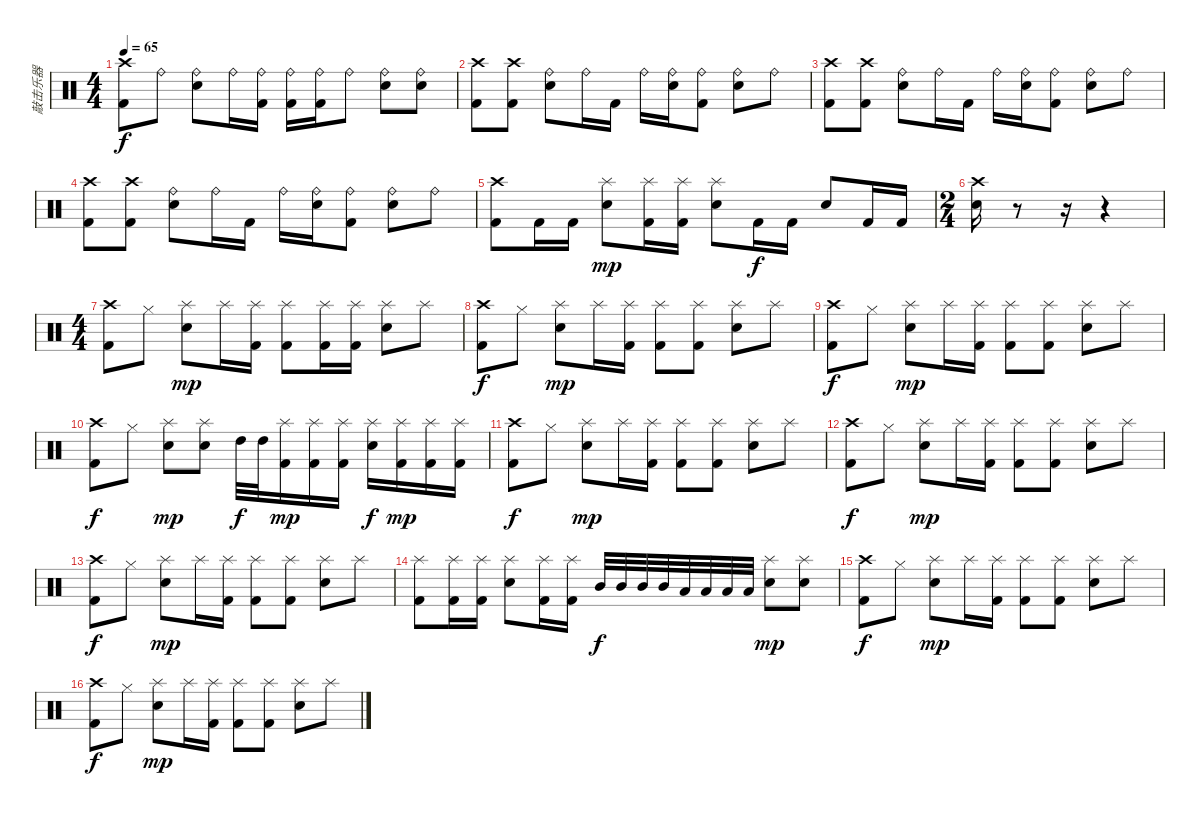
\track ("敲击乐器" "敲击乐器") {instrument percussion}
\staff {score}
\articulation defaults
\ts (4 4)
\tempo 65
\clef neutral
\ks c
("Crash high (hit)" "Kick (hit) 2").8{dy f} "Ride (bell)".8 ("Ride (bell)" "Snare (hit) 2").8 "Ride (bell)".16 ("Ride (bell)" "Kick (hit) 2").16 ("Ride (bell)" "Kick (hit) 2").16 ("Ride (bell)" "Kick (hit) 2").16 "Ride (bell)".8 ("Ride (bell)" "Snare (hit) 2").8 ("Ride (bell)" "Snare (hit) 2").8 |
("Crash high (hit)" "Kick (hit) 2").8 ("Crash high (hit)" "Kick (hit) 2").8 ("Ride (bell)" "Snare (hit) 2").8 "Ride (bell)".16 "Kick (hit) 2".16 "Ride (bell)".16 ("Ride (bell)" "Snare (hit) 2").16 ("Ride (bell)" "Kick (hit) 2").8 ("Ride (bell)" "Snare (hit) 2").8 "Ride (bell)".8 |
("Crash high (hit)" "Kick (hit) 2").8 ("Crash high (hit)" "Kick (hit) 2").8 ("Ride (bell)" "Snare (hit) 2").8 "Ride (bell)".16 "Kick (hit) 2".16 "Ride (bell)".16 ("Ride (bell)" "Snare (hit) 2").16 ("Ride (bell)" "Kick (hit) 2").8 ("Ride (bell)" "Snare (hit) 2").8 "Ride (bell)".8 |
("Crash high (hit)" "Kick (hit) 2").8 ("Crash high (hit)" "Kick (hit) 2").8 ("Ride (bell)" "Snare (hit) 2").8 "Ride (bell)".16 "Kick (hit) 2".16 "Ride (bell)".16 ("Ride (bell)" "Snare (hit) 2").16 ("Ride (bell)" "Kick (hit) 2").8 ("Ride (bell)" "Snare (hit) 2").8 "Ride (bell)".8 |
("Crash high (hit)" "Kick (hit) 2").8 "Kick (hit) 2".16 "Kick (hit) 2".16 ("Splash (hit)" "Snare (hit) 2").8{dy mp} ("Splash (hit)" "Kick (hit) 2").16 ("Splash (hit)" "Kick (hit) 2").16 ("Splash (hit)" "Snare (hit) 2").8 "Kick (hit) 2".16{dy f} "Kick (hit) 2".16 "Snare (hit) 2".8 "Kick (hit) 2".16 "Kick (hit) 2".16 |
\ts (2 4)
("Crash high (hit)" "Snare (hit) 2").16 r.8 r.16 r.4 |
\ts (4 4)
("Crash high (hit)" "Kick (hit) 2").8 "Hi-Hat (closed)".8 ("Splash (hit)" "Snare (hit) 2").8{dy mp} "Splash (hit)".16 ("Splash (hit)" "Kick (hit) 2").16 ("Splash (hit)" "Kick (hit) 2").8 ("Splash (hit)" "Kick (hit) 2").16 ("Splash (hit)" "Kick (hit) 2").16 ("Splash (hit)" "Snare (hit) 2").8 "Splash (hit)".8 |
("Crash high (hit)" "Kick (hit) 2").8{dy f} "Hi-Hat (closed)".8 ("Splash (hit)" "Snare (hit) 2").8{dy mp} "Splash (hit)".16 ("Splash (hit)" "Kick (hit) 2").16 ("Splash (hit)" "Kick (hit) 2").8 ("Splash (hit)" "Kick (hit) 2").8 ("Splash (hit)" "Snare (hit) 2").8 "Splash (hit)".8 |
("Crash high (hit)" "Kick (hit) 2").8{dy f} "Hi-Hat (closed)".8 ("Splash (hit)" "Snare (hit) 2").8{dy mp} "Splash (hit)".16 ("Splash (hit)" "Kick (hit) 2").16 ("Splash (hit)" "Kick (hit) 2").8 ("Splash (hit)" "Kick (hit) 2").8 ("Splash (hit)" "Snare (hit) 2").8 "Splash (hit)".8 |
("Crash high (hit)" "Kick (hit) 2").8{dy f} "Hi-Hat (closed)".8 ("Splash (hit)" "Snare (hit) 2").8{dy mp} ("Splash (hit)" "Snare (hit) 2").8 "High Tom (hit)".32{dy f} "High Tom (hit)".32 ("Splash (hit)" "Kick (hit) 2").16{dy mp} ("Splash (hit)" "Kick (hit) 2").16 ("Splash (hit)" "Kick (hit) 2").16 ("Splash (hit)" "Snare (hit) 2").16{dy f} ("Splash (hit)" "Kick (hit) 2").16{dy mp} ("Splash (hit)" "Kick (hit) 2").16 ("Splash (hit)" "Kick (hit) 2").16 |
("Crash high (hit)" "Kick (hit) 2").8{dy f} "Hi-Hat (closed)".8 ("Splash (hit)" "Snare (hit) 2").8{dy mp} "Splash (hit)".16 ("Splash (hit)" "Kick (hit) 2").16 ("Splash (hit)" "Kick (hit) 2").8 ("Splash (hit)" "Kick (hit) 2").8 ("Splash (hit)" "Snare (hit) 2").8 "Splash (hit)".8 |
("Crash high (hit)" "Kick (hit) 2").8{dy f} "Hi-Hat (closed)".8 ("Splash (hit)" "Snare (hit) 2").8{dy mp} "Splash (hit)".16 ("Splash (hit)" "Kick (hit) 2").16 ("Splash (hit)" "Kick (hit) 2").8 ("Splash (hit)" "Kick (hit) 2").8 ("Splash (hit)" "Snare (hit) 2").8 "Splash (hit)".8 |
("Crash high (hit)" "Kick (hit) 2").8{dy f} "Hi-Hat (closed)".8 ("Splash (hit)" "Snare (hit) 2").8{dy mp} "Splash (hit)".16 ("Splash (hit)" "Kick (hit) 2").16 ("Splash (hit)" "Kick (hit) 2").8 ("Splash (hit)" "Kick (hit) 2").8 ("Splash (hit)" "Snare (hit) 2").8 "Splash (hit)".8 |
("Splash (hit)" "Kick (hit) 2").8 ("Splash (hit)" "Kick (hit) 2").16 ("Splash (hit)" "Kick (hit) 2").16 ("Splash (hit)" "Snare (hit) 2").8 ("Splash (hit)" "Kick (hit) 2").16 ("Splash (hit)" "Kick (hit) 2").16 "Mid Tom (hit)".32{dy f} "Mid Tom (hit)".32 "Mid Tom (hit)".32 "Mid Tom (hit)".32 "Low Tom (hit)".32 "Low Tom (hit)".32 "Low Tom (hit)".32 "Low Tom (hit)".32 ("Splash (hit)" "Snare (hit) 2").8{dy mp} ("Splash (hit)" "Snare (hit) 2").8 |
("Crash high (hit)" "Kick (hit) 2").8{dy f} "Hi-Hat (closed)".8 ("Splash (hit)" "Snare (hit) 2").8{dy mp} "Splash (hit)".16 ("Splash (hit)" "Kick (hit) 2").16 ("Splash (hit)" "Kick (hit) 2").8 ("Splash (hit)" "Kick (hit) 2").8 ("Splash (hit)" "Snare (hit) 2").8 "Splash (hit)".8 |
("Crash high (hit)" "Kick (hit) 2").8{dy f} "Hi-Hat (closed)".8 ("Splash (hit)" "Snare (hit) 2").8{dy mp} "Splash (hit)".16 ("Splash (hit)" "Kick (hit) 2").16 ("Splash (hit)" "Kick (hit) 2").8 ("Splash (hit)" "Kick (hit) 2").8 ("Splash (hit)" "Snare (hit) 2").8 "Splash (hit)".8
